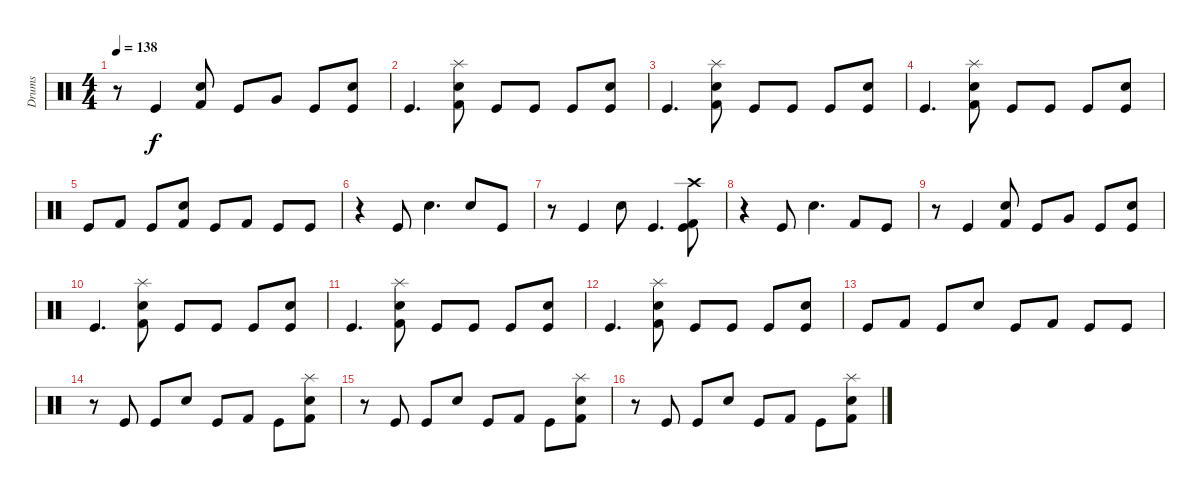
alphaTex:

\track ("Drums" "Drums") {instrument percussion}
\staff {score}
\articulation defaults
\ts (4 4)
\tempo 138
\clef neutral
\ks c
r.8{dy f} "Kick (hit)".4 ("Snare (hit) 2" "Kick (hit) 2").8 "Kick (hit)".8 "Very Low Tom (hit)".8 "Kick (hit)".8 ("Snare (hit) 2" "Kick (hit)").8 |
"Kick (hit)".4{d} ("Splash (hit)" "Snare (hit) 2" "Kick (hit) 2").8 "Kick (hit)".8 "Kick (hit)".8 "Kick (hit)".8 ("Snare (hit) 2" "Kick (hit)").8 |
"Kick (hit)".4{d} ("Splash (hit)" "Snare (hit) 2" "Kick (hit) 2").8 "Kick (hit)".8 "Kick (hit)".8 "Kick (hit)".8 ("Snare (hit) 2" "Kick (hit)").8 |
"Kick (hit)".4{d} ("Splash (hit)" "Snare (hit) 2" "Kick (hit) 2").8 "Kick (hit)".8 "Kick (hit)".8 "Kick (hit)".8 ("Snare (hit) 2" "Kick (hit)").8 |
"Kick (hit)".8 "Kick (hit) 2".8 "Kick (hit)".8 ("Snare (hit) 2" "Kick (hit) 2").8 "Kick (hit)".8 "Kick (hit) 2".8 "Kick (hit)".8 "Kick (hit)".8 |
r.4 "Kick (hit)".8 "Snare (hit) 2".4{d} "Snare (hit) 2".8 "Kick (hit)".8 |
r.8 "Kick (hit)".4 "Snare (hit) 2".8 "Kick (hit)".4{d} ("Crash high (hit)" "Kick (hit) 2" "Kick (hit)").8 |
r.4 "Kick (hit)".8 "Snare (hit) 2".4{d} "Kick (hit) 2".8 "Kick (hit)".8 |
r.8 "Kick (hit)".4 ("Snare (hit) 2" "Kick (hit) 2").8 "Kick (hit)".8 "Very Low Tom (hit)".8 "Kick (hit)".8 ("Snare (hit) 2" "Kick (hit)").8 |
"Kick (hit)".4{d} ("Splash (hit)" "Snare (hit) 2" "Kick (hit) 2").8 "Kick (hit)".8 "Kick (hit)".8 "Kick (hit)".8 ("Snare (hit) 2" "Kick (hit)").8 |
"Kick (hit)".4{d} ("Splash (hit)" "Snare (hit) 2" "Kick (hit) 2").8 "Kick (hit)".8 "Kick (hit)".8 "Kick (hit)".8 ("Snare (hit) 2" "Kick (hit)").8 |
"Kick (hit)".4{d} ("Splash (hit)" "Snare (hit) 2" "Kick (hit) 2").8 "Kick (hit)".8 "Kick (hit)".8 "Kick (hit)".8 ("Snare (hit) 2" "Kick (hit)").8 |
"Kick (hit)".8 "Kick (hit) 2".8 "Kick (hit)".8 "Snare (hit) 2".8 "Kick (hit)".8 "Kick (hit) 2".8 "Kick (hit)".8 "Kick (hit)".8 |
r.8 "Kick (hit)".8 "Kick (hit)".8 "Snare (hit) 2".8 "Kick (hit)".8 "Kick (hit) 2".8 "Kick (hit)".8 ("Splash (hit)" "Snare (hit) 2" "Kick (hit) 2").8 |
r.8 "Kick (hit)".8 "Kick (hit)".8 "Snare (hit) 2".8 "Kick (hit)".8 "Kick (hit) 2".8 "Kick (hit)".8 ("Splash (hit)" "Snare (hit) 2" "Kick (hit) 2").8 |
r.8 "Kick (hit)".8 "Kick (hit)".8 "Snare (hit) 2".8 "Kick (hit)".8 "Kick (hit) 2".8 "Kick (hit)".8 ("Splash (hit)" "Snare (hit) 2" "Kick (hit) 2").8
